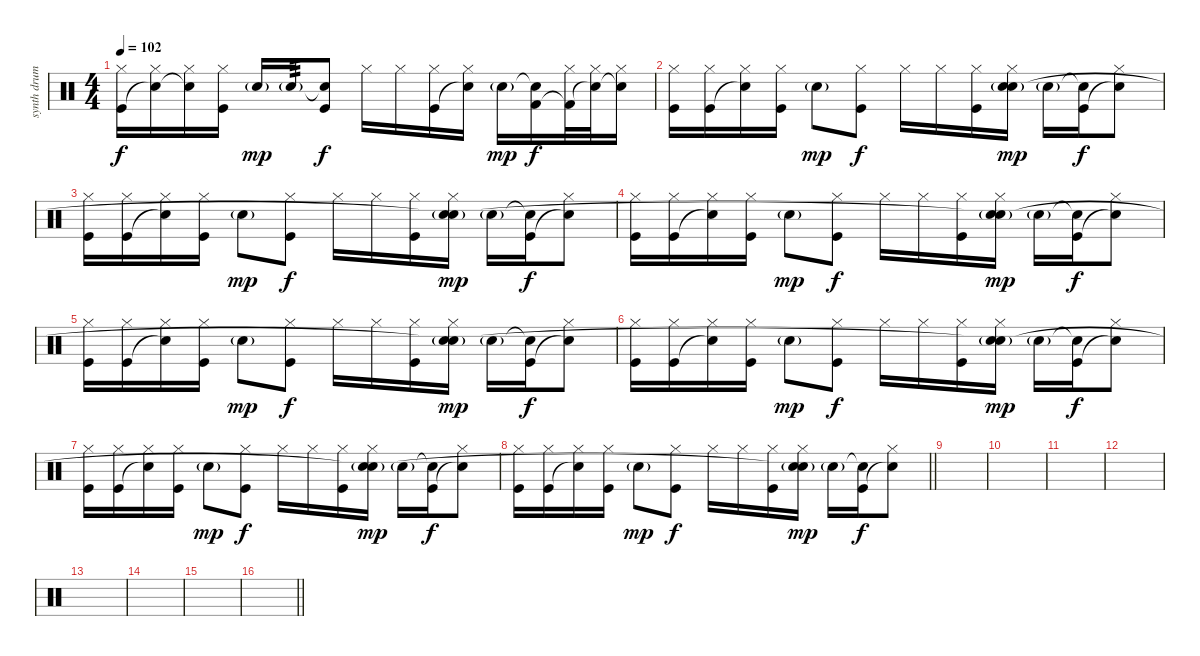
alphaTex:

\track ("synth drums" "synth drum") {instrument percussion}
\staff {score}
\articulation defaults
\ts (4 4)
\tempo 102
\clef neutral
\ks c
("Hi-Hat (closed)" "Kick (hit)").16{dy f} ("Hi-Hat (closed)" "Snare (hit)"{t}).16 ("Hi-Hat (closed)" "Snare (hit)"{t}).16 ("Hi-Hat (closed)" "Kick (hit)").16 "Electric Snare (hit)"{g}.16{dy mp} "Electric Snare (hit)"{g}.16{tp 3} ("Snare (hit)"{t} "Kick (hit)").8{dy f} "Hi-Hat (closed)".16 "Hi-Hat (closed)".16 ("Hi-Hat (closed)" "Kick (hit)").16 ("Hi-Hat (closed)" "Snare (hit)"{t}).16 "Electric Snare (hit)"{g}.16{dy mp} ("Snare (hit)"{t} "Kick (hit) 2").16{dy f} ("Hi-Hat (closed)" "Kick (hit) 2"{t}).32 ("Hi-Hat (closed)" "Snare (hit)"{t}).32 ("Hi-Hat (closed)" "Snare (hit)"{t}).16 |
("Hi-Hat (closed)" "Kick (hit)").16 ("Hi-Hat (closed)" "Kick (hit)").16 ("Hi-Hat (closed)" "Snare (hit)"{t}).16 ("Hi-Hat (closed)" "Kick (hit)").16 "Electric Snare (hit)"{g}.8{dy mp} ("Hi-Hat (closed)" "Kick (hit)").8{dy f} "Hi-Hat (closed)".16 "Hi-Hat (closed)".16 ("Hi-Hat (closed)" "Kick (hit)").16 ("Hi-Hat (closed)" "Electric Snare (hit)"{g} "Snare (hit)").16{dy mp} "Electric Snare (hit)"{g}.16 ("Snare (hit)"{t} "Kick (hit)").16{dy f} ("Hi-Hat (closed)" "Snare (hit)"{t}).8 |
("Hi-Hat (closed)" "Kick (hit)").16 ("Hi-Hat (closed)" "Kick (hit)").16 ("Hi-Hat (closed)" "Snare (hit)"{t}).16 ("Hi-Hat (closed)" "Kick (hit)").16 "Electric Snare (hit)"{g}.8{dy mp} ("Hi-Hat (closed)" "Kick (hit)").8{dy f} "Hi-Hat (closed)".16 "Hi-Hat (closed)".16 ("Hi-Hat (closed)" "Kick (hit)").16 ("Hi-Hat (closed)" "Electric Snare (hit)"{g} "Snare (hit)"{t}).16{dy mp} "Electric Snare (hit)"{g}.16 ("Snare (hit)"{t} "Kick (hit)").16{dy f} ("Hi-Hat (closed)" "Snare (hit)"{t}).8 |
("Hi-Hat (closed)" "Kick (hit)").16 ("Hi-Hat (closed)" "Kick (hit)").16 ("Hi-Hat (closed)" "Snare (hit)"{t}).16 ("Hi-Hat (closed)" "Kick (hit)").16 "Electric Snare (hit)"{g}.8{dy mp} ("Hi-Hat (closed)" "Kick (hit)").8{dy f} "Hi-Hat (closed)".16 "Hi-Hat (closed)".16 ("Hi-Hat (closed)" "Kick (hit)").16 ("Hi-Hat (closed)" "Electric Snare (hit)"{g} "Snare (hit)"{t}).16{dy mp} "Electric Snare (hit)"{g}.16 ("Snare (hit)"{t} "Kick (hit)").16{dy f} ("Hi-Hat (closed)" "Snare (hit)"{t}).8 |
("Hi-Hat (closed)" "Kick (hit)").16 ("Hi-Hat (closed)" "Kick (hit)").16 ("Hi-Hat (closed)" "Snare (hit)"{t}).16 ("Hi-Hat (closed)" "Kick (hit)").16 "Electric Snare (hit)"{g}.8{dy mp} ("Hi-Hat (closed)" "Kick (hit)").8{dy f} "Hi-Hat (closed)".16 "Hi-Hat (closed)".16 ("Hi-Hat (closed)" "Kick (hit)").16 ("Hi-Hat (closed)" "Electric Snare (hit)"{g} "Snare (hit)"{t}).16{dy mp} "Electric Snare (hit)"{g}.16 ("Snare (hit)"{t} "Kick (hit)").16{dy f} ("Hi-Hat (closed)" "Snare (hit)"{t}).8 |
("Hi-Hat (closed)" "Kick (hit)").16 ("Hi-Hat (closed)" "Kick (hit)").16 ("Hi-Hat (closed)" "Snare (hit)"{t}).16 ("Hi-Hat (closed)" "Kick (hit)").16 "Electric Snare (hit)"{g}.8{dy mp} ("Hi-Hat (closed)" "Kick (hit)").8{dy f} "Hi-Hat (closed)".16 "Hi-Hat (closed)".16 ("Hi-Hat (closed)" "Kick (hit)").16 ("Hi-Hat (closed)" "Electric Snare (hit)"{g} "Snare (hit)"{t}).16{dy mp} "Electric Snare (hit)"{g}.16 ("Snare (hit)"{t} "Kick (hit)").16{dy f} ("Hi-Hat (closed)" "Snare (hit)"{t}).8 |
("Hi-Hat (closed)" "Kick (hit)").16 ("Hi-Hat (closed)" "Kick (hit)").16 ("Hi-Hat (closed)" "Snare (hit)"{t}).16 ("Hi-Hat (closed)" "Kick (hit)").16 "Electric Snare (hit)"{g}.8{dy mp} ("Hi-Hat (closed)" "Kick (hit)").8{dy f} "Hi-Hat (closed)".16 "Hi-Hat (closed)".16 ("Hi-Hat (closed)" "Kick (hit)").16 ("Hi-Hat (closed)" "Electric Snare (hit)"{g} "Snare (hit)"{t}).16{dy mp} "Electric Snare (hit)"{g}.16 ("Snare (hit)"{t} "Kick (hit)").16{dy f} ("Hi-Hat (closed)" "Snare (hit)"{t}).8 |
\barLineRight lightlight
("Hi-Hat (closed)" "Kick (hit)").16 ("Hi-Hat (closed)" "Kick (hit)").16 ("Hi-Hat (closed)" "Snare (hit)"{t}).16 ("Hi-Hat (closed)" "Kick (hit)").16 "Electric Snare (hit)"{g}.8{dy mp} ("Hi-Hat (closed)" "Kick (hit)").8{dy f} "Hi-Hat (closed)".16 "Hi-Hat (closed)".16 ("Hi-Hat (closed)" "Kick (hit)").16 ("Hi-Hat (closed)" "Electric Snare (hit)"{g} "Snare (hit)"{t}).16{dy mp} "Electric Snare (hit)"{g}.16 ("Snare (hit)"{t} "Kick (hit)").16{dy f} ("Hi-Hat (closed)" "Snare (hit)"{t}).8 |
|
|
|
|
|
|
|
\barLineRight lightlight
